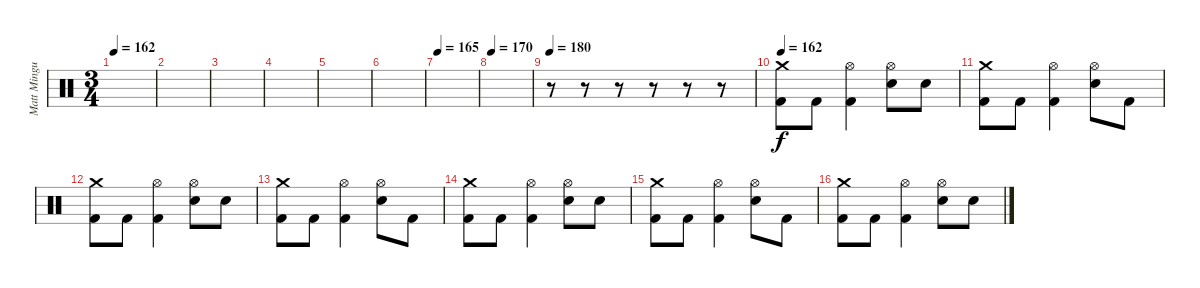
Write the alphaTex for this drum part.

\track ("Matt Mingus" "Matt Mingu") {instrument percussion}
\staff {score}
\articulation defaults
\ts (3 4)
\tempo 162
\clef neutral
\ks c
|
|
|
|
|
|
\tempo 165
|
\tempo 170
|
\tempo 180
r.8 r.8 r.8 r.8 r.8 r.8 |
\tempo 162
("Crash medium (hit)" "Kick (hit) 2").8 "Kick (hit) 2".8 ("Hi-Hat (open)" "Kick (hit) 2").4 ("Hi-Hat (open)" "Electric Snare (hit)").8 "Electric Snare (hit)".8 |
("Crash medium (hit)" "Kick (hit) 2").8 "Kick (hit) 2".8 ("Hi-Hat (open)" "Kick (hit) 2").4 ("Hi-Hat (open)" "Electric Snare (hit)").8 "Kick (hit) 2".8 |
("Crash medium (hit)" "Kick (hit) 2").8 "Kick (hit) 2".8 ("Hi-Hat (open)" "Kick (hit) 2").4 ("Hi-Hat (open)" "Electric Snare (hit)").8 "Electric Snare (hit)".8 |
("Crash medium (hit)" "Kick (hit) 2").8 "Kick (hit) 2".8 ("Hi-Hat (open)" "Kick (hit) 2").4 ("Hi-Hat (open)" "Electric Snare (hit)").8 "Kick (hit) 2".8 |
("Crash medium (hit)" "Kick (hit) 2").8 "Kick (hit) 2".8 ("Hi-Hat (open)" "Kick (hit) 2").4 ("Hi-Hat (open)" "Electric Snare (hit)").8 "Electric Snare (hit)".8 |
("Crash medium (hit)" "Kick (hit) 2").8 "Kick (hit) 2".8 ("Hi-Hat (open)" "Kick (hit) 2").4 ("Hi-Hat (open)" "Electric Snare (hit)").8 "Kick (hit) 2".8 |
("Crash medium (hit)" "Kick (hit) 2").8 "Kick (hit) 2".8 ("Hi-Hat (open)" "Kick (hit) 2").4 ("Hi-Hat (open)" "Electric Snare (hit)").8 "Electric Snare (hit)".8
